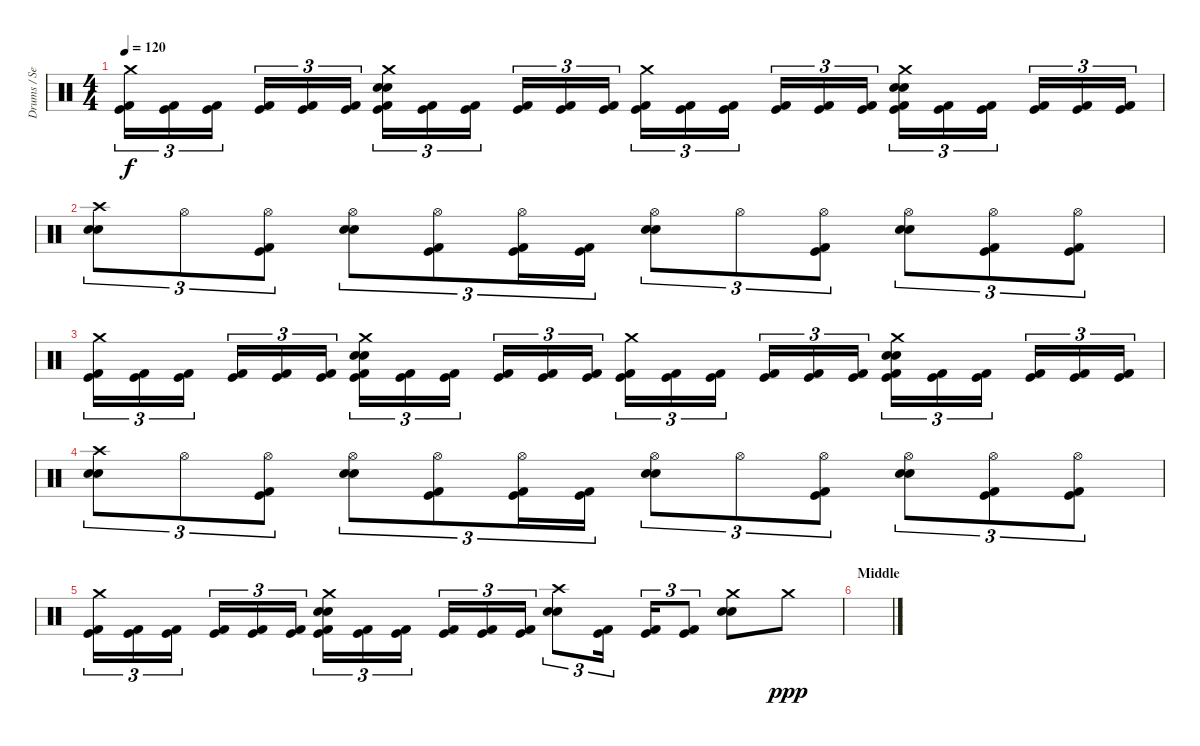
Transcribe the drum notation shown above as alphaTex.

\track ("Drums / Sean" "Drums / Se") {instrument percussion}
\staff {score}
\articulation defaults
\ts (4 4)
\tempo 120
\clef neutral
\ks c
("Crash medium (hit)" "Kick (hit)" "Kick (hit) 2").16{tu (3 2) dy f} ("Kick (hit)" "Kick (hit) 2").16{tu (3 2)} ("Kick (hit)" "Kick (hit) 2").16{tu (3 2)} ("Kick (hit)" "Kick (hit) 2").16{tu (3 2)} ("Kick (hit)" "Kick (hit) 2").16{tu (3 2)} ("Kick (hit)" "Kick (hit) 2").16{tu (3 2)} ("Crash medium (hit)" "Electric Snare (hit)" "Snare (hit) 2" "Kick (hit)" "Kick (hit) 2").16{tu (3 2)} ("Kick (hit)" "Kick (hit) 2").16{tu (3 2)} ("Kick (hit)" "Kick (hit) 2").16{tu (3 2)} ("Kick (hit)" "Kick (hit) 2").16{tu (3 2)} ("Kick (hit)" "Kick (hit) 2").16{tu (3 2)} ("Kick (hit)" "Kick (hit) 2").16{tu (3 2)} ("Crash medium (hit)" "Kick (hit)" "Kick (hit) 2").16{tu (3 2)} ("Kick (hit)" "Kick (hit) 2").16{tu (3 2)} ("Kick (hit)" "Kick (hit) 2").16{tu (3 2)} ("Kick (hit)" "Kick (hit) 2").16{tu (3 2)} ("Kick (hit)" "Kick (hit) 2").16{tu (3 2)} ("Kick (hit)" "Kick (hit) 2").16{tu (3 2)} ("Crash medium (hit)" "Electric Snare (hit)" "Snare (hit) 2" "Kick (hit)" "Kick (hit) 2").16{tu (3 2)} ("Kick (hit)" "Kick (hit) 2").16{tu (3 2)} ("Kick (hit)" "Kick (hit) 2").16{tu (3 2)} ("Kick (hit)" "Kick (hit) 2").16{tu (3 2)} ("Kick (hit)" "Kick (hit) 2").16{tu (3 2)} ("Kick (hit)" "Kick (hit) 2").16{tu (3 2)} |
("Crash high (hit)" "Electric Snare (hit)" "Snare (hit) 2").8{tu (3 2)} "Hi-Hat (open)".8{tu (3 2)} ("Hi-Hat (open)" "Kick (hit)" "Kick (hit) 2").8{tu (3 2)} ("Hi-Hat (open)" "Electric Snare (hit)" "Snare (hit) 2").8{tu (3 2)} ("Hi-Hat (open)" "Kick (hit)" "Kick (hit) 2").8{tu (3 2)} ("Hi-Hat (open)" "Kick (hit)" "Kick (hit) 2").16{tu (3 2)} ("Kick (hit)" "Kick (hit) 2").16{tu (3 2)} ("Hi-Hat (open)" "Electric Snare (hit)" "Snare (hit) 2").8{tu (3 2)} "Hi-Hat (open)".8{tu (3 2)} ("Hi-Hat (open)" "Kick (hit)" "Kick (hit) 2").8{tu (3 2)} ("Hi-Hat (open)" "Electric Snare (hit)" "Snare (hit) 2").8{tu (3 2)} ("Hi-Hat (open)" "Kick (hit)" "Kick (hit) 2").8{tu (3 2)} ("Hi-Hat (open)" "Kick (hit)" "Kick (hit) 2").8{tu (3 2)} |
("Crash medium (hit)" "Kick (hit)" "Kick (hit) 2").16{tu (3 2)} ("Kick (hit)" "Kick (hit) 2").16{tu (3 2)} ("Kick (hit)" "Kick (hit) 2").16{tu (3 2)} ("Kick (hit)" "Kick (hit) 2").16{tu (3 2)} ("Kick (hit)" "Kick (hit) 2").16{tu (3 2)} ("Kick (hit)" "Kick (hit) 2").16{tu (3 2)} ("Crash medium (hit)" "Electric Snare (hit)" "Snare (hit) 2" "Kick (hit)" "Kick (hit) 2").16{tu (3 2)} ("Kick (hit)" "Kick (hit) 2").16{tu (3 2)} ("Kick (hit)" "Kick (hit) 2").16{tu (3 2)} ("Kick (hit)" "Kick (hit) 2").16{tu (3 2)} ("Kick (hit)" "Kick (hit) 2").16{tu (3 2)} ("Kick (hit)" "Kick (hit) 2").16{tu (3 2)} ("Crash medium (hit)" "Kick (hit)" "Kick (hit) 2").16{tu (3 2)} ("Kick (hit)" "Kick (hit) 2").16{tu (3 2)} ("Kick (hit)" "Kick (hit) 2").16{tu (3 2)} ("Kick (hit)" "Kick (hit) 2").16{tu (3 2)} ("Kick (hit)" "Kick (hit) 2").16{tu (3 2)} ("Kick (hit)" "Kick (hit) 2").16{tu (3 2)} ("Crash medium (hit)" "Electric Snare (hit)" "Snare (hit) 2" "Kick (hit)" "Kick (hit) 2").16{tu (3 2)} ("Kick (hit)" "Kick (hit) 2").16{tu (3 2)} ("Kick (hit)" "Kick (hit) 2").16{tu (3 2)} ("Kick (hit)" "Kick (hit) 2").16{tu (3 2)} ("Kick (hit)" "Kick (hit) 2").16{tu (3 2)} ("Kick (hit)" "Kick (hit) 2").16{tu (3 2)} |
("Crash high (hit)" "Electric Snare (hit)" "Snare (hit) 2").8{tu (3 2)} "Hi-Hat (open)".8{tu (3 2)} ("Hi-Hat (open)" "Kick (hit)" "Kick (hit) 2").8{tu (3 2)} ("Hi-Hat (open)" "Electric Snare (hit)" "Snare (hit) 2").8{tu (3 2)} ("Hi-Hat (open)" "Kick (hit)" "Kick (hit) 2").8{tu (3 2)} ("Hi-Hat (open)" "Kick (hit)" "Kick (hit) 2").16{tu (3 2)} ("Kick (hit)" "Kick (hit) 2").16{tu (3 2)} ("Hi-Hat (open)" "Electric Snare (hit)" "Snare (hit) 2").8{tu (3 2)} "Hi-Hat (open)".8{tu (3 2)} ("Hi-Hat (open)" "Kick (hit)" "Kick (hit) 2").8{tu (3 2)} ("Hi-Hat (open)" "Electric Snare (hit)" "Snare (hit) 2").8{tu (3 2)} ("Hi-Hat (open)" "Kick (hit)" "Kick (hit) 2").8{tu (3 2)} ("Hi-Hat (open)" "Kick (hit)" "Kick (hit) 2").8{tu (3 2)} |
("Crash medium (hit)" "Kick (hit)" "Kick (hit) 2").16{tu (3 2)} ("Kick (hit)" "Kick (hit) 2").16{tu (3 2)} ("Kick (hit)" "Kick (hit) 2").16{tu (3 2)} ("Kick (hit)" "Kick (hit) 2").16{tu (3 2)} ("Kick (hit)" "Kick (hit) 2").16{tu (3 2)} ("Kick (hit)" "Kick (hit) 2").16{tu (3 2)} ("Crash medium (hit)" "Electric Snare (hit)" "Snare (hit) 2" "Kick (hit)" "Kick (hit) 2").16{tu (3 2)} ("Kick (hit)" "Kick (hit) 2").16{tu (3 2)} ("Kick (hit)" "Kick (hit) 2").16{tu (3 2)} ("Kick (hit)" "Kick (hit) 2").16{tu (3 2)} ("Kick (hit)" "Kick (hit) 2").16{tu (3 2)} ("Kick (hit)" "Kick (hit) 2").16{tu (3 2)} ("Crash high (hit)" "Electric Snare (hit)" "Snare (hit) 2").8{tu (3 2)} ("Kick (hit)" "Kick (hit) 2").16{tu (3 2)} ("Kick (hit)" "Kick (hit) 2").16{tu (3 2)} ("Kick (hit)" "Kick (hit) 2").8{tu (3 2)} ("Crash medium (hit)" "Electric Snare (hit)" "Snare (hit) 2").8 "Crash medium (hit)".8{dy ppp} |
\section ("" "Middle")
